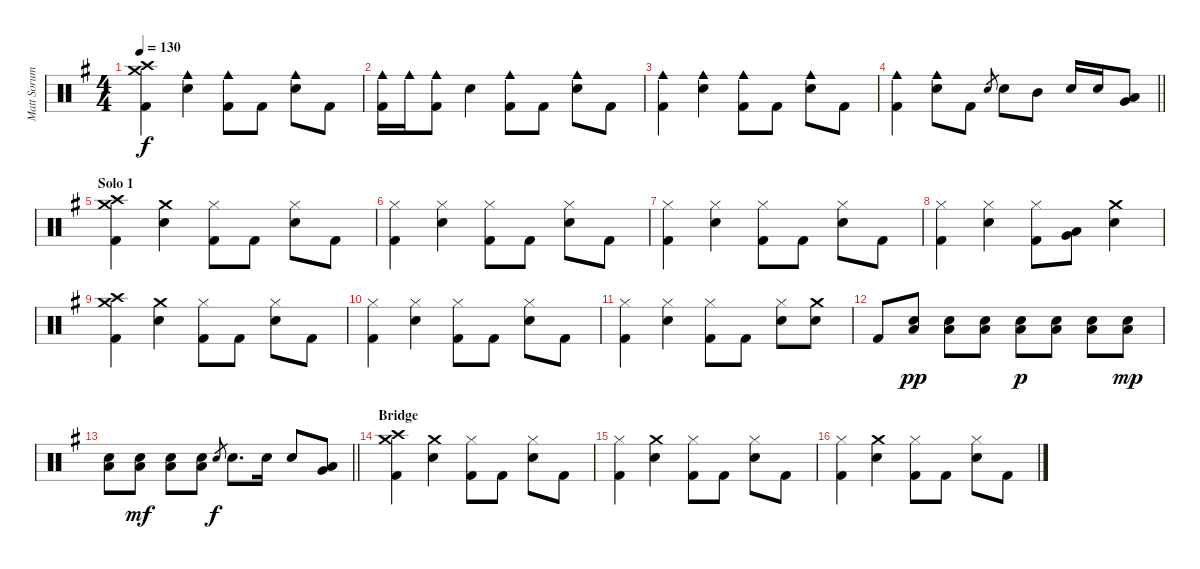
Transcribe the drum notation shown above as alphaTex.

\track ("Matt Sorum - Drums" "Matt Sorum") {instrument percussion}
\staff {score}
\articulation defaults
\ts (4 4)
\tempo 130
\clef neutral
\ks g
("Crash medium (hit)" "Crash high (hit)" "Kick (hit) 2").4{dy f} ("Cowbell medium (hit)" "Snare (hit) 2").4 ("Cowbell medium (hit)" "Kick (hit) 2").8 "Kick (hit) 2".8 ("Cowbell medium (hit)" "Snare (hit) 2").8 "Kick (hit) 2".8 |
("Cowbell medium (hit)" "Kick (hit) 2").16 "Cowbell medium (hit)".16 ("Cowbell medium (hit)" "Kick (hit) 2").8 "Snare (hit) 2".4 ("Cowbell medium (hit)" "Kick (hit) 2").8 "Kick (hit) 2".8 ("Cowbell medium (hit)" "Snare (hit) 2").8 "Kick (hit) 2".8 |
("Cowbell medium (hit)" "Kick (hit) 2").4 ("Cowbell medium (hit)" "Snare (hit) 2").4 ("Cowbell medium (hit)" "Kick (hit) 2").8 "Kick (hit) 2".8 ("Cowbell medium (hit)" "Snare (hit) 2").8 "Kick (hit) 2".8 |
\barLineRight lightlight
("Cowbell medium (hit)" "Kick (hit) 2").4 ("Cowbell medium (hit)" "Snare (hit) 2").8 "Kick (hit) 2".8 "Snare (hit) 2".8{gr} "Snare (hit) 2".8 "Mid Tom (hit)".8 "Snare (hit) 2".16 "Snare (hit) 2".16 ("Low Tom (hit)" "Very Low Tom (hit)").8 |
\section ("" "Solo 1")
("Crash medium (hit)" "Crash high (hit)" "Kick (hit) 2").4 ("Crash medium (hit)" "Snare (hit) 2").4 ("Hi-Hat (closed)" "Kick (hit) 2").8 "Kick (hit) 2".8 ("Hi-Hat (closed)" "Snare (hit) 2").8 "Kick (hit) 2".8 |
("Hi-Hat (closed)" "Kick (hit) 2").4 ("Hi-Hat (closed)" "Snare (hit) 2").4 ("Hi-Hat (closed)" "Kick (hit) 2").8 "Kick (hit) 2".8 ("Hi-Hat (closed)" "Snare (hit) 2").8 "Kick (hit) 2".8 |
("Hi-Hat (closed)" "Kick (hit) 2").4 ("Hi-Hat (closed)" "Snare (hit) 2").4 ("Hi-Hat (closed)" "Kick (hit) 2").8 "Kick (hit) 2".8 ("Hi-Hat (closed)" "Snare (hit) 2").8 "Kick (hit) 2".8 |
("Hi-Hat (closed)" "Kick (hit) 2").4 ("Hi-Hat (closed)" "Snare (hit) 2").4 ("Hi-Hat (closed)" "Kick (hit) 2").8 ("Low Tom (hit)" "Very Low Tom (hit)").8 ("Crash medium (hit)" "Snare (hit) 2").4 |
("Crash medium (hit)" "Crash high (hit)" "Kick (hit) 2").4 ("Crash medium (hit)" "Snare (hit) 2").4 ("Hi-Hat (closed)" "Kick (hit) 2").8 "Kick (hit) 2".8 ("Hi-Hat (closed)" "Snare (hit) 2").8 "Kick (hit) 2".8 |
("Hi-Hat (closed)" "Kick (hit) 2").4 ("Hi-Hat (closed)" "Snare (hit) 2").4 ("Hi-Hat (closed)" "Kick (hit) 2").8 "Kick (hit) 2".8 ("Hi-Hat (closed)" "Snare (hit) 2").8 "Kick (hit) 2".8 |
("Hi-Hat (closed)" "Kick (hit) 2").4 ("Hi-Hat (closed)" "Snare (hit) 2").4 ("Hi-Hat (closed)" "Kick (hit) 2").8 "Kick (hit) 2".8 ("Hi-Hat (closed)" "Snare (hit) 2").8 ("Crash medium (hit)" "Snare (hit) 2").8 |
"Kick (hit) 2".8 ("Low Tom (hit)" "Snare (hit) 2").8{dy pp} ("Low Tom (hit)" "Snare (hit) 2").8 ("Low Tom (hit)" "Snare (hit) 2").8 ("Low Tom (hit)" "Snare (hit) 2").8{dy p} ("Low Tom (hit)" "Snare (hit) 2").8 ("Low Tom (hit)" "Snare (hit) 2").8 ("Low Tom (hit)" "Snare (hit) 2").8{dy mp} |
\barLineRight lightlight
("Low Tom (hit)" "Snare (hit) 2").8 ("Low Tom (hit)" "Snare (hit) 2").8{dy mf} ("Low Tom (hit)" "Snare (hit) 2").8 ("Low Tom (hit)" "Snare (hit) 2").8 "Snare (hit) 2".8{gr dy f} "Snare (hit) 2".8{d} "Snare (hit) 2".16 "Snare (hit) 2".8 ("Low Tom (hit)" "Very Low Tom (hit)").8 |
\section ("" "Bridge")
("Crash medium (hit)" "Crash high (hit)" "Kick (hit) 2").4 ("Crash medium (hit)" "Snare (hit) 2").4 ("Hi-Hat (closed)" "Kick (hit) 2").8 "Kick (hit) 2".8 ("Hi-Hat (closed)" "Snare (hit) 2").8 "Kick (hit) 2".8 |
("Hi-Hat (closed)" "Kick (hit) 2").4 ("Crash medium (hit)" "Snare (hit) 2").4 ("Hi-Hat (closed)" "Kick (hit) 2").8 "Kick (hit) 2".8 ("Hi-Hat (closed)" "Snare (hit) 2").8 "Kick (hit) 2".8 |
("Hi-Hat (closed)" "Kick (hit) 2").4 ("Crash medium (hit)" "Snare (hit) 2").4 ("Hi-Hat (closed)" "Kick (hit) 2").8 "Kick (hit) 2".8 ("Hi-Hat (closed)" "Snare (hit) 2").8 "Kick (hit) 2".8
